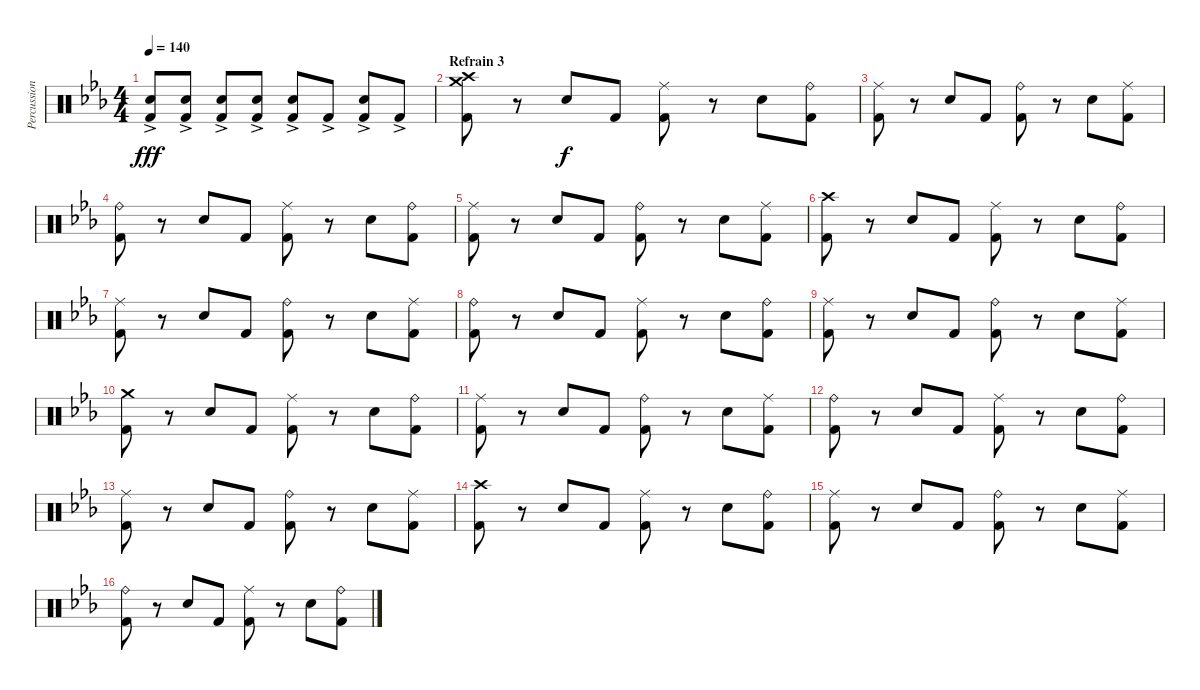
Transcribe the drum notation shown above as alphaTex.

\track ("Percussions" "Percussion") {instrument percussion}
\staff {score}
\articulation defaults
\ts (4 4)
\tempo 140
\clef neutral
\ks eb
("Snare (hit) 2" "Kick (hit) 2"{ac}).8{dy fff} ("Snare (hit) 2" "Kick (hit) 2"{ac}).8 ("Snare (hit) 2" "Kick (hit) 2"{ac}).8 ("Snare (hit) 2" "Kick (hit) 2"{ac}).8 ("Snare (hit) 2" "Kick (hit) 2"{ac}).8 "Kick (hit) 2"{ac}.8 ("Snare (hit) 2"{ac} "Kick (hit) 2"{ac}).8 "Kick (hit) 2"{ac}.8 |
\section ("" "Refrain 3")
("Crash medium (hit)" "Crash high (hit)" "Kick (hit) 2").8 r.8 "Snare (hit) 2".8{dy f} "Kick (hit) 2".8 ("Ride (middle)" "Kick (hit) 2").8 r.8 "Snare (hit) 2".8 ("Ride (bell)" "Kick (hit) 2").8 |
("Ride (middle)" "Kick (hit) 2").8 r.8 "Snare (hit) 2".8 "Kick (hit) 2".8 ("Ride (bell)" "Kick (hit) 2").8 r.8 "Snare (hit) 2".8 ("Ride (middle)" "Kick (hit) 2").8 |
("Ride (bell)" "Kick (hit) 2").8 r.8 "Snare (hit) 2".8 "Kick (hit) 2".8 ("Ride (middle)" "Kick (hit) 2").8 r.8 "Snare (hit) 2".8 ("Ride (bell)" "Kick (hit) 2").8 |
("Ride (middle)" "Kick (hit) 2").8 r.8 "Snare (hit) 2".8 "Kick (hit) 2".8 ("Ride (bell)" "Kick (hit) 2").8 r.8 "Snare (hit) 2".8 ("Ride (middle)" "Kick (hit) 2").8 |
("Crash high (hit)" "Kick (hit) 2").8 r.8 "Snare (hit) 2".8 "Kick (hit) 2".8 ("Ride (middle)" "Kick (hit) 2").8 r.8 "Snare (hit) 2".8 ("Ride (bell)" "Kick (hit) 2").8 |
("Ride (middle)" "Kick (hit) 2").8 r.8 "Snare (hit) 2".8 "Kick (hit) 2".8 ("Ride (bell)" "Kick (hit) 2").8 r.8 "Snare (hit) 2".8 ("Ride (middle)" "Kick (hit) 2").8 |
("Ride (bell)" "Kick (hit) 2").8 r.8 "Snare (hit) 2".8 "Kick (hit) 2".8 ("Ride (middle)" "Kick (hit) 2").8 r.8 "Snare (hit) 2".8 ("Ride (bell)" "Kick (hit) 2").8 |
("Ride (middle)" "Kick (hit) 2").8 r.8 "Snare (hit) 2".8 "Kick (hit) 2".8 ("Ride (bell)" "Kick (hit) 2").8 r.8 "Snare (hit) 2".8 ("Ride (middle)" "Kick (hit) 2").8 |
("Crash medium (hit)" "Kick (hit) 2").8 r.8 "Snare (hit) 2".8 "Kick (hit) 2".8 ("Ride (middle)" "Kick (hit) 2").8 r.8 "Snare (hit) 2".8 ("Ride (bell)" "Kick (hit) 2").8 |
("Ride (middle)" "Kick (hit) 2").8 r.8 "Snare (hit) 2".8 "Kick (hit) 2".8 ("Ride (bell)" "Kick (hit) 2").8 r.8 "Snare (hit) 2".8 ("Ride (middle)" "Kick (hit) 2").8 |
("Ride (bell)" "Kick (hit) 2").8 r.8 "Snare (hit) 2".8 "Kick (hit) 2".8 ("Ride (middle)" "Kick (hit) 2").8 r.8 "Snare (hit) 2".8 ("Ride (bell)" "Kick (hit) 2").8 |
("Ride (middle)" "Kick (hit) 2").8 r.8 "Snare (hit) 2".8 "Kick (hit) 2".8 ("Ride (bell)" "Kick (hit) 2").8 r.8 "Snare (hit) 2".8 ("Ride (middle)" "Kick (hit) 2").8 |
("Crash high (hit)" "Kick (hit) 2").8 r.8 "Snare (hit) 2".8 "Kick (hit) 2".8 ("Ride (middle)" "Kick (hit) 2").8 r.8 "Snare (hit) 2".8 ("Ride (bell)" "Kick (hit) 2").8 |
("Ride (middle)" "Kick (hit) 2").8 r.8 "Snare (hit) 2".8 "Kick (hit) 2".8 ("Ride (bell)" "Kick (hit) 2").8 r.8 "Snare (hit) 2".8 ("Ride (middle)" "Kick (hit) 2").8 |
("Ride (bell)" "Kick (hit) 2").8 r.8 "Snare (hit) 2".8 "Kick (hit) 2".8 ("Ride (middle)" "Kick (hit) 2").8 r.8 "Snare (hit) 2".8 ("Ride (bell)" "Kick (hit) 2").8
